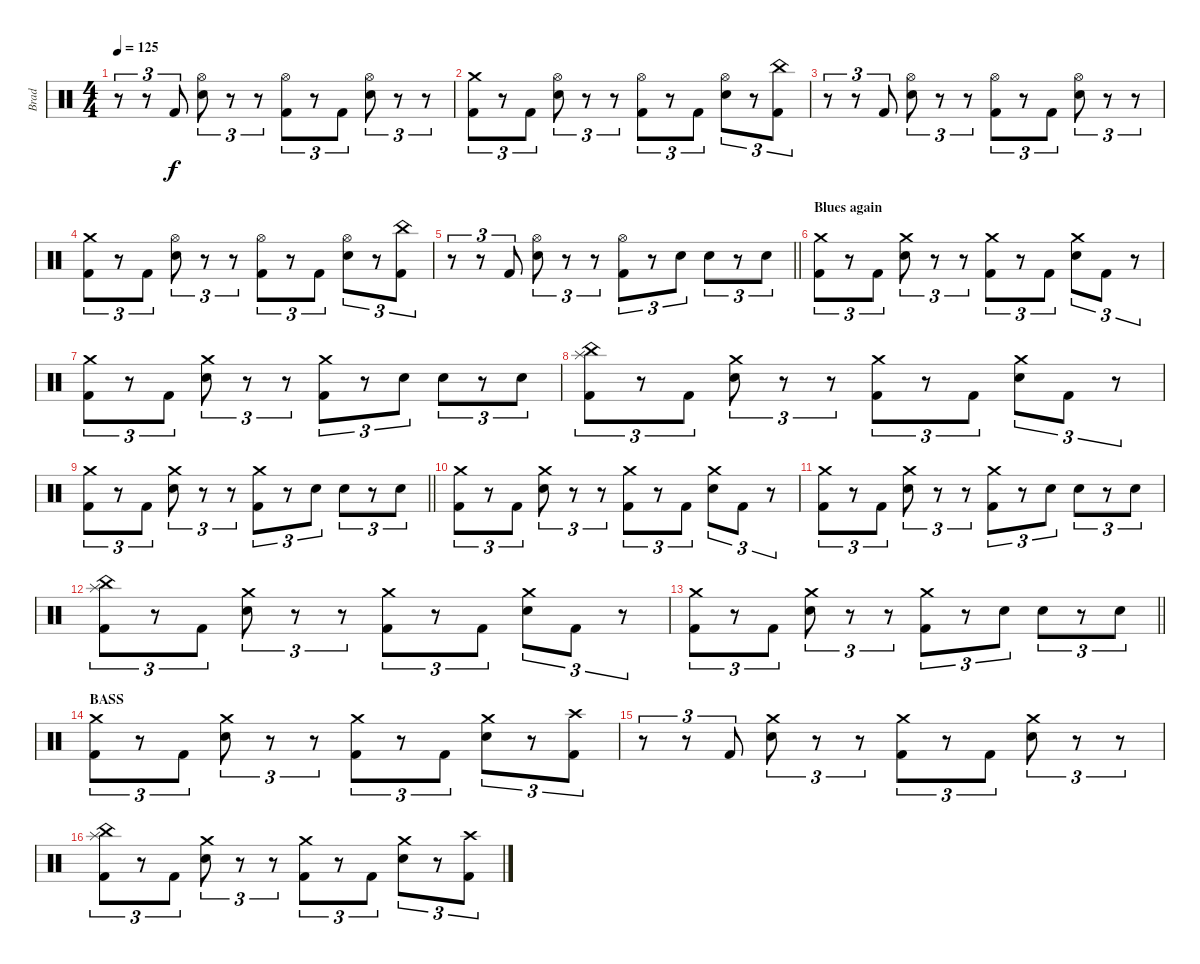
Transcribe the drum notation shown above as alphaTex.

\track ("Brad" "Brad") {instrument percussion}
\staff {score}
\articulation defaults
\ts (4 4)
\tempo 125
\clef neutral
\ks c
r.8{tu (3 2) dy f} r.8{tu (3 2)} "Kick (hit) 2".8{tu (3 2)} ("Hi-Hat (open)" "Electric Snare (hit)").8{tu (3 2)} r.8{tu (3 2)} r.8{tu (3 2)} ("Hi-Hat (open)" "Kick (hit) 2").8{tu (3 2)} r.8{tu (3 2)} "Kick (hit) 2".8{tu (3 2)} ("Hi-Hat (open)" "Electric Snare (hit)").8{tu (3 2)} r.8{tu (3 2)} r.8{tu (3 2)} |
("Crash medium (hit)" "Kick (hit) 2").8{tu (3 2)} r.8{tu (3 2)} "Kick (hit) 2".8{tu (3 2)} ("Hi-Hat (open)" "Electric Snare (hit)").8{tu (3 2)} r.8{tu (3 2)} r.8{tu (3 2)} ("Hi-Hat (open)" "Kick (hit) 2").8{tu (3 2)} r.8{tu (3 2)} "Kick (hit) 2".8{tu (3 2)} ("Hi-Hat (open)" "Electric Snare (hit)").8{tu (3 2)} r.8{tu (3 2)} ("China (hit)" "Kick (hit) 2").8{tu (3 2)} |
r.8{tu (3 2)} r.8{tu (3 2)} "Kick (hit) 2".8{tu (3 2)} ("Hi-Hat (open)" "Electric Snare (hit)").8{tu (3 2)} r.8{tu (3 2)} r.8{tu (3 2)} ("Hi-Hat (open)" "Kick (hit) 2").8{tu (3 2)} r.8{tu (3 2)} "Kick (hit) 2".8{tu (3 2)} ("Hi-Hat (open)" "Electric Snare (hit)").8{tu (3 2)} r.8{tu (3 2)} r.8{tu (3 2)} |
("Crash medium (hit)" "Kick (hit) 2").8{tu (3 2)} r.8{tu (3 2)} "Kick (hit) 2".8{tu (3 2)} ("Hi-Hat (open)" "Electric Snare (hit)").8{tu (3 2)} r.8{tu (3 2)} r.8{tu (3 2)} ("Hi-Hat (open)" "Kick (hit) 2").8{tu (3 2)} r.8{tu (3 2)} "Kick (hit) 2".8{tu (3 2)} ("Hi-Hat (open)" "Electric Snare (hit)").8{tu (3 2)} r.8{tu (3 2)} ("China (hit)" "Kick (hit) 2").8{tu (3 2)} |
\barLineRight lightlight
r.8{tu (3 2)} r.8{tu (3 2)} "Kick (hit) 2".8{tu (3 2)} ("Hi-Hat (open)" "Electric Snare (hit)").8{tu (3 2)} r.8{tu (3 2)} r.8{tu (3 2)} ("Hi-Hat (open)" "Kick (hit) 2").8{tu (3 2)} r.8{tu (3 2)} "Electric Snare (hit)".8{tu (3 2)} "Electric Snare (hit)".8{tu (3 2)} r.8{tu (3 2)} "Electric Snare (hit)".8{tu (3 2)} |
\section ("" "Blues again")
("Crash medium (hit)" "Kick (hit) 2").8{tu (3 2)} r.8{tu (3 2)} "Kick (hit) 2".8{tu (3 2)} ("Crash medium (hit)" "Electric Snare (hit)").8{tu (3 2)} r.8{tu (3 2)} r.8{tu (3 2)} ("Crash medium (hit)" "Kick (hit) 2").8{tu (3 2)} r.8{tu (3 2)} "Kick (hit) 2".8{tu (3 2)} ("Crash medium (hit)" "Electric Snare (hit)").8{tu (3 2)} "Kick (hit) 2".8{tu (3 2)} r.8{tu (3 2)} |
("Crash medium (hit)" "Kick (hit) 2").8{tu (3 2)} r.8{tu (3 2)} "Kick (hit) 2".8{tu (3 2)} ("Crash medium (hit)" "Electric Snare (hit)").8{tu (3 2)} r.8{tu (3 2)} r.8{tu (3 2)} ("Crash medium (hit)" "Kick (hit) 2").8{tu (3 2)} r.8{tu (3 2)} "Electric Snare (hit)".8{tu (3 2)} "Electric Snare (hit)".8{tu (3 2)} r.8{tu (3 2)} "Electric Snare (hit)".8{tu (3 2)} |
("Splash (hit)" "China (hit)" "Kick (hit) 2").8{tu (3 2)} r.8{tu (3 2)} "Kick (hit) 2".8{tu (3 2)} ("Crash medium (hit)" "Electric Snare (hit)").8{tu (3 2)} r.8{tu (3 2)} r.8{tu (3 2)} ("Crash medium (hit)" "Kick (hit) 2").8{tu (3 2)} r.8{tu (3 2)} "Kick (hit) 2".8{tu (3 2)} ("Crash medium (hit)" "Electric Snare (hit)").8{tu (3 2)} "Kick (hit) 2".8{tu (3 2)} r.8{tu (3 2)} |
\barLineRight lightlight
("Crash medium (hit)" "Kick (hit) 2").8{tu (3 2)} r.8{tu (3 2)} "Kick (hit) 2".8{tu (3 2)} ("Crash medium (hit)" "Electric Snare (hit)").8{tu (3 2)} r.8{tu (3 2)} r.8{tu (3 2)} ("Crash medium (hit)" "Kick (hit) 2").8{tu (3 2)} r.8{tu (3 2)} "Electric Snare (hit)".8{tu (3 2)} "Electric Snare (hit)".8{tu (3 2)} r.8{tu (3 2)} "Electric Snare (hit)".8{tu (3 2)} |
("Crash medium (hit)" "Kick (hit) 2").8{tu (3 2)} r.8{tu (3 2)} "Kick (hit) 2".8{tu (3 2)} ("Crash medium (hit)" "Electric Snare (hit)").8{tu (3 2)} r.8{tu (3 2)} r.8{tu (3 2)} ("Crash medium (hit)" "Kick (hit) 2").8{tu (3 2)} r.8{tu (3 2)} "Kick (hit) 2".8{tu (3 2)} ("Crash medium (hit)" "Electric Snare (hit)").8{tu (3 2)} "Kick (hit) 2".8{tu (3 2)} r.8{tu (3 2)} |
("Crash medium (hit)" "Kick (hit) 2").8{tu (3 2)} r.8{tu (3 2)} "Kick (hit) 2".8{tu (3 2)} ("Crash medium (hit)" "Electric Snare (hit)").8{tu (3 2)} r.8{tu (3 2)} r.8{tu (3 2)} ("Crash medium (hit)" "Kick (hit) 2").8{tu (3 2)} r.8{tu (3 2)} "Electric Snare (hit)".8{tu (3 2)} "Electric Snare (hit)".8{tu (3 2)} r.8{tu (3 2)} "Electric Snare (hit)".8{tu (3 2)} |
("Splash (hit)" "China (hit)" "Kick (hit) 2").8{tu (3 2)} r.8{tu (3 2)} "Kick (hit) 2".8{tu (3 2)} ("Crash medium (hit)" "Electric Snare (hit)").8{tu (3 2)} r.8{tu (3 2)} r.8{tu (3 2)} ("Crash medium (hit)" "Kick (hit) 2").8{tu (3 2)} r.8{tu (3 2)} "Kick (hit) 2".8{tu (3 2)} ("Crash medium (hit)" "Electric Snare (hit)").8{tu (3 2)} "Kick (hit) 2".8{tu (3 2)} r.8{tu (3 2)} |
\barLineRight lightlight
("Crash medium (hit)" "Kick (hit) 2").8{tu (3 2)} r.8{tu (3 2)} "Kick (hit) 2".8{tu (3 2)} ("Crash medium (hit)" "Electric Snare (hit)").8{tu (3 2)} r.8{tu (3 2)} r.8{tu (3 2)} ("Crash medium (hit)" "Kick (hit) 2").8{tu (3 2)} r.8{tu (3 2)} "Electric Snare (hit)".8{tu (3 2)} "Electric Snare (hit)".8{tu (3 2)} r.8{tu (3 2)} "Electric Snare (hit)".8{tu (3 2)} |
\section ("" "BASS")
("Crash medium (hit)" "Kick (hit) 2").8{tu (3 2)} r.8{tu (3 2)} "Kick (hit) 2".8{tu (3 2)} ("Crash medium (hit)" "Electric Snare (hit)").8{tu (3 2)} r.8{tu (3 2)} r.8{tu (3 2)} ("Crash medium (hit)" "Kick (hit) 2").8{tu (3 2)} r.8{tu (3 2)} "Kick (hit) 2".8{tu (3 2)} ("Crash medium (hit)" "Electric Snare (hit)").8{tu (3 2)} r.8{tu (3 2)} ("Crash high (hit)" "Kick (hit) 2").8{tu (3 2)} |
r.8{tu (3 2)} r.8{tu (3 2)} "Kick (hit) 2".8{tu (3 2)} ("Crash medium (hit)" "Electric Snare (hit)").8{tu (3 2)} r.8{tu (3 2)} r.8{tu (3 2)} ("Crash medium (hit)" "Kick (hit) 2").8{tu (3 2)} r.8{tu (3 2)} "Kick (hit) 2".8{tu (3 2)} ("Crash medium (hit)" "Electric Snare (hit)").8{tu (3 2)} r.8{tu (3 2)} r.8{tu (3 2)} |
("Splash (hit)" "China (hit)" "Kick (hit) 2").8{tu (3 2)} r.8{tu (3 2)} "Kick (hit) 2".8{tu (3 2)} ("Crash medium (hit)" "Electric Snare (hit)").8{tu (3 2)} r.8{tu (3 2)} r.8{tu (3 2)} ("Crash medium (hit)" "Kick (hit) 2").8{tu (3 2)} r.8{tu (3 2)} "Kick (hit) 2".8{tu (3 2)} ("Crash medium (hit)" "Electric Snare (hit)").8{tu (3 2)} r.8{tu (3 2)} ("Crash high (hit)" "Kick (hit) 2").8{tu (3 2)}
